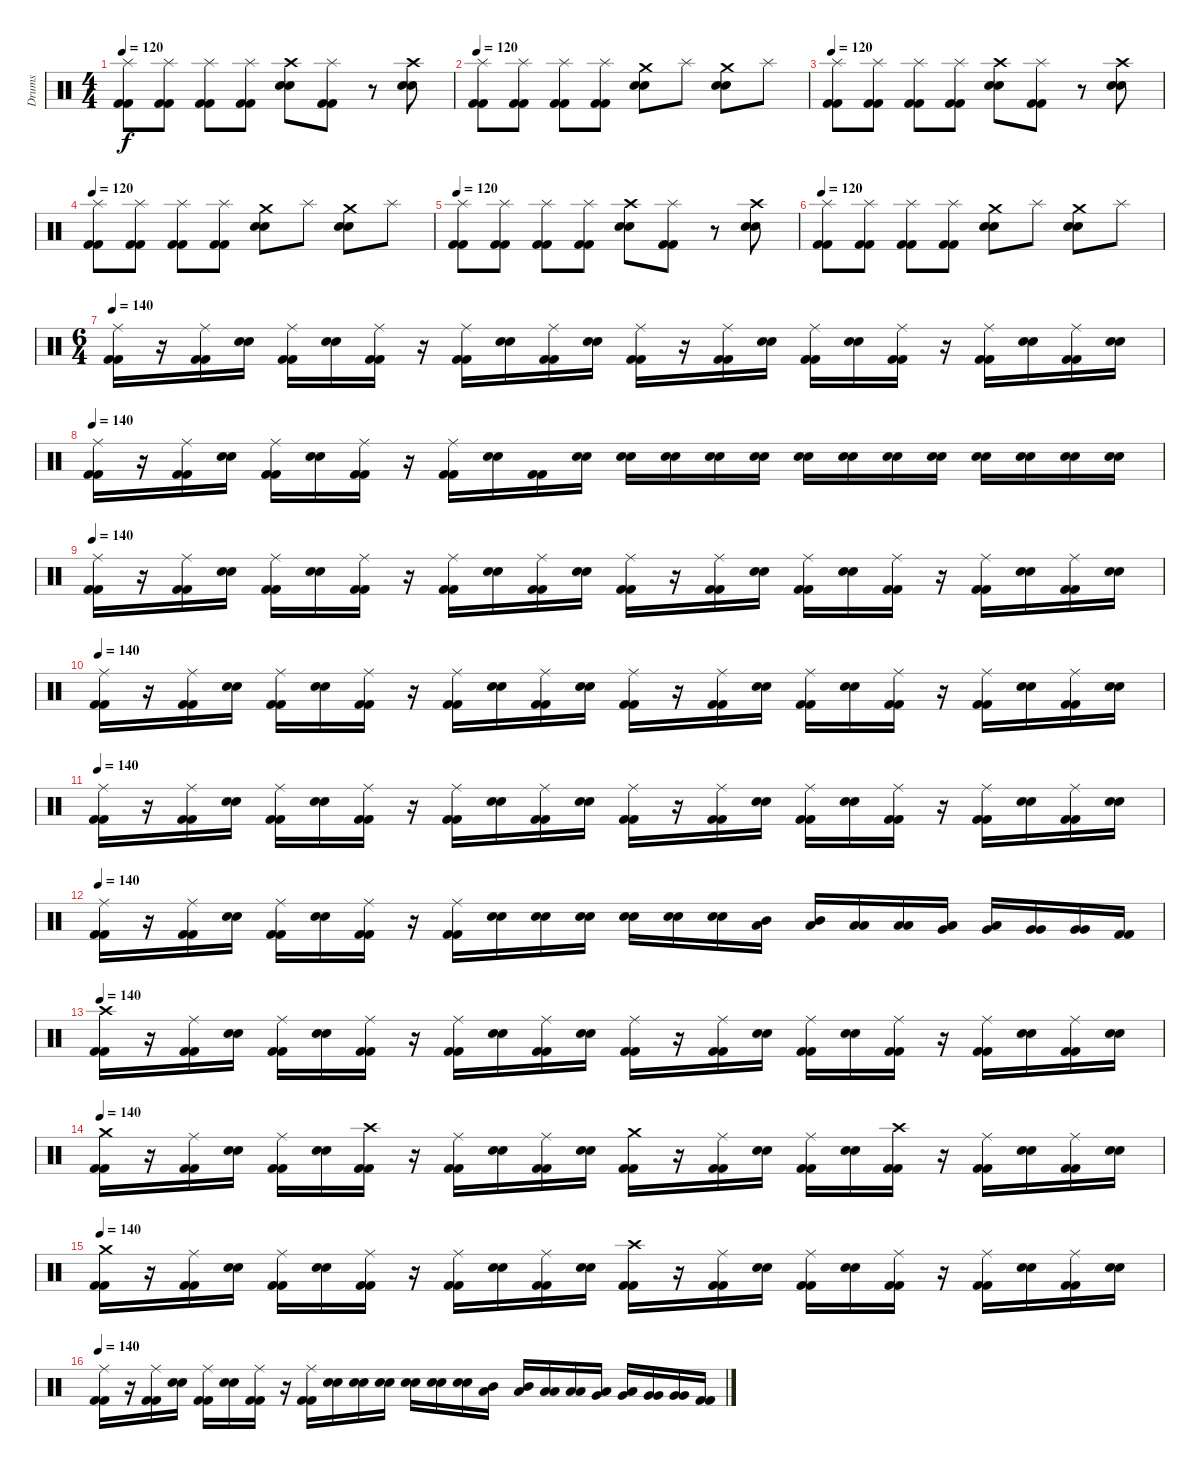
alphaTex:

\track ("Drums" "Drums") {instrument percussion}
\staff {score}
\articulation defaults
\ts (4 4)
\tempo 120
\clef neutral
\ks c
("Splash (hit)" "Kick (hit) 2" "Kick (hit) 2").8{dy f} ("Splash (hit)" "Kick (hit) 2" "Kick (hit) 2").8 ("Splash (hit)" "Kick (hit) 2" "Kick (hit) 2").8 ("Splash (hit)" "Kick (hit) 2" "Kick (hit) 2").8 ("Crash high (hit)" "Snare (hit) 2" "Snare (hit) 2").8 ("Splash (hit)" "Kick (hit) 2" "Kick (hit) 2").8 r.8 ("Crash high (hit)" "Snare (hit) 2" "Snare (hit) 2").8 |
\tempo 120
("Splash (hit)" "Kick (hit) 2" "Kick (hit) 2").8 ("Splash (hit)" "Kick (hit) 2" "Kick (hit) 2").8 ("Splash (hit)" "Kick (hit) 2" "Kick (hit) 2").8 ("Splash (hit)" "Kick (hit) 2" "Kick (hit) 2").8 ("Crash medium (hit)" "Snare (hit) 2" "Snare (hit) 2").8 "Splash (hit)".8 ("Crash medium (hit)" "Snare (hit) 2" "Snare (hit) 2").8 "Splash (hit)".8 |
\tempo 120
("Splash (hit)" "Kick (hit) 2" "Kick (hit) 2").8 ("Splash (hit)" "Kick (hit) 2" "Kick (hit) 2").8 ("Splash (hit)" "Kick (hit) 2" "Kick (hit) 2").8 ("Splash (hit)" "Kick (hit) 2" "Kick (hit) 2").8 ("Crash high (hit)" "Snare (hit) 2" "Snare (hit) 2").8 ("Splash (hit)" "Kick (hit) 2" "Kick (hit) 2").8 r.8 ("Crash high (hit)" "Snare (hit) 2" "Snare (hit) 2").8 |
\tempo 120
("Splash (hit)" "Kick (hit) 2" "Kick (hit) 2").8 ("Splash (hit)" "Kick (hit) 2" "Kick (hit) 2").8 ("Splash (hit)" "Kick (hit) 2" "Kick (hit) 2").8 ("Splash (hit)" "Kick (hit) 2" "Kick (hit) 2").8 ("Crash medium (hit)" "Snare (hit) 2" "Snare (hit) 2").8 "Splash (hit)".8 ("Crash medium (hit)" "Snare (hit) 2" "Snare (hit) 2").8 "Splash (hit)".8 |
\tempo 120
("Splash (hit)" "Kick (hit) 2" "Kick (hit) 2").8 ("Splash (hit)" "Kick (hit) 2" "Kick (hit) 2").8 ("Splash (hit)" "Kick (hit) 2" "Kick (hit) 2").8 ("Splash (hit)" "Kick (hit) 2" "Kick (hit) 2").8 ("Crash high (hit)" "Snare (hit) 2" "Snare (hit) 2").8 ("Splash (hit)" "Kick (hit) 2" "Kick (hit) 2").8 r.8 ("Crash high (hit)" "Snare (hit) 2" "Snare (hit) 2").8 |
\tempo 120
("Splash (hit)" "Kick (hit) 2" "Kick (hit) 2").8 ("Splash (hit)" "Kick (hit) 2" "Kick (hit) 2").8 ("Splash (hit)" "Kick (hit) 2" "Kick (hit) 2").8 ("Splash (hit)" "Kick (hit) 2" "Kick (hit) 2").8 ("Crash medium (hit)" "Snare (hit) 2" "Snare (hit) 2").8 "Splash (hit)".8 ("Crash medium (hit)" "Snare (hit) 2" "Snare (hit) 2").8 "Splash (hit)".8 |
\ts (6 4)
\tempo 140
("Ride (middle)" "Kick (hit) 2" "Kick (hit) 2").16 r.16 ("Ride (middle)" "Kick (hit) 2" "Kick (hit) 2").16 ("Snare (hit) 2" "Snare (hit) 2").16 ("Ride (middle)" "Kick (hit) 2" "Kick (hit) 2").16 ("Snare (hit) 2" "Snare (hit) 2").16 ("Ride (middle)" "Kick (hit) 2" "Kick (hit) 2").16 r.16 ("Ride (middle)" "Kick (hit) 2" "Kick (hit) 2").16 ("Snare (hit) 2" "Snare (hit) 2").16 ("Ride (middle)" "Kick (hit) 2" "Kick (hit) 2").16 ("Snare (hit) 2" "Snare (hit) 2").16 ("Ride (middle)" "Kick (hit) 2" "Kick (hit) 2").16 r.16 ("Ride (middle)" "Kick (hit) 2" "Kick (hit) 2").16 ("Snare (hit) 2" "Snare (hit) 2").16 ("Ride (middle)" "Kick (hit) 2" "Kick (hit) 2").16 ("Snare (hit) 2" "Snare (hit) 2").16 ("Ride (middle)" "Kick (hit) 2" "Kick (hit) 2").16 r.16 ("Ride (middle)" "Kick (hit) 2" "Kick (hit) 2").16 ("Snare (hit) 2" "Snare (hit) 2").16 ("Ride (middle)" "Kick (hit) 2" "Kick (hit) 2").16 ("Snare (hit) 2" "Snare (hit) 2").16 |
\tempo 140
("Ride (middle)" "Kick (hit) 2" "Kick (hit) 2").16 r.16 ("Ride (middle)" "Kick (hit) 2" "Kick (hit) 2").16 ("Snare (hit) 2" "Snare (hit) 2").16 ("Ride (middle)" "Kick (hit) 2" "Kick (hit) 2").16 ("Snare (hit) 2" "Snare (hit) 2").16 ("Ride (middle)" "Kick (hit) 2" "Kick (hit) 2").16 r.16 ("Ride (middle)" "Kick (hit) 2" "Kick (hit) 2").16 ("Snare (hit) 2" "Snare (hit) 2").16 ("Kick (hit) 2" "Kick (hit) 2").16 ("Snare (hit) 2" "Snare (hit) 2").16 ("Snare (hit) 2" "Snare (hit) 2").16 ("Snare (hit) 2" "Snare (hit) 2").16 ("Snare (hit) 2" "Snare (hit) 2").16 ("Snare (hit) 2" "Snare (hit) 2").16 ("Snare (hit) 2" "Snare (hit) 2").16 ("Snare (hit) 2" "Snare (hit) 2").16 ("Snare (hit) 2" "Snare (hit) 2").16 ("Snare (hit) 2" "Snare (hit) 2").16 ("Snare (hit) 2" "Snare (hit) 2").16 ("Snare (hit) 2" "Snare (hit) 2").16 ("Snare (hit) 2" "Snare (hit) 2").16 ("Snare (hit) 2" "Snare (hit) 2").16 |
\tempo 140
("Ride (middle)" "Kick (hit) 2" "Kick (hit) 2").16 r.16 ("Ride (middle)" "Kick (hit) 2" "Kick (hit) 2").16 ("Snare (hit) 2" "Snare (hit) 2").16 ("Ride (middle)" "Kick (hit) 2" "Kick (hit) 2").16 ("Snare (hit) 2" "Snare (hit) 2").16 ("Ride (middle)" "Kick (hit) 2" "Kick (hit) 2").16 r.16 ("Ride (middle)" "Kick (hit) 2" "Kick (hit) 2").16 ("Snare (hit) 2" "Snare (hit) 2").16 ("Ride (middle)" "Kick (hit) 2" "Kick (hit) 2").16 ("Snare (hit) 2" "Snare (hit) 2").16 ("Ride (middle)" "Kick (hit) 2" "Kick (hit) 2").16 r.16 ("Ride (middle)" "Kick (hit) 2" "Kick (hit) 2").16 ("Snare (hit) 2" "Snare (hit) 2").16 ("Ride (middle)" "Kick (hit) 2" "Kick (hit) 2").16 ("Snare (hit) 2" "Snare (hit) 2").16 ("Ride (middle)" "Kick (hit) 2" "Kick (hit) 2").16 r.16 ("Ride (middle)" "Kick (hit) 2" "Kick (hit) 2").16 ("Snare (hit) 2" "Snare (hit) 2").16 ("Ride (middle)" "Kick (hit) 2" "Kick (hit) 2").16 ("Snare (hit) 2" "Snare (hit) 2").16 |
\tempo 140
("Ride (middle)" "Kick (hit) 2" "Kick (hit) 2").16 r.16 ("Ride (middle)" "Kick (hit) 2" "Kick (hit) 2").16 ("Snare (hit) 2" "Snare (hit) 2").16 ("Ride (middle)" "Kick (hit) 2" "Kick (hit) 2").16 ("Snare (hit) 2" "Snare (hit) 2").16 ("Ride (middle)" "Kick (hit) 2" "Kick (hit) 2").16 r.16 ("Ride (middle)" "Kick (hit) 2" "Kick (hit) 2").16 ("Snare (hit) 2" "Snare (hit) 2").16 ("Ride (middle)" "Kick (hit) 2" "Kick (hit) 2").16 ("Snare (hit) 2" "Snare (hit) 2").16 ("Ride (middle)" "Kick (hit) 2" "Kick (hit) 2").16 r.16 ("Ride (middle)" "Kick (hit) 2" "Kick (hit) 2").16 ("Snare (hit) 2" "Snare (hit) 2").16 ("Ride (middle)" "Kick (hit) 2" "Kick (hit) 2").16 ("Snare (hit) 2" "Snare (hit) 2").16 ("Ride (middle)" "Kick (hit) 2" "Kick (hit) 2").16 r.16 ("Ride (middle)" "Kick (hit) 2" "Kick (hit) 2").16 ("Snare (hit) 2" "Snare (hit) 2").16 ("Ride (middle)" "Kick (hit) 2" "Kick (hit) 2").16 ("Snare (hit) 2" "Snare (hit) 2").16 |
\tempo 140
("Ride (middle)" "Kick (hit) 2" "Kick (hit) 2").16 r.16 ("Ride (middle)" "Kick (hit) 2" "Kick (hit) 2").16 ("Snare (hit) 2" "Snare (hit) 2").16 ("Ride (middle)" "Kick (hit) 2" "Kick (hit) 2").16 ("Snare (hit) 2" "Snare (hit) 2").16 ("Ride (middle)" "Kick (hit) 2" "Kick (hit) 2").16 r.16 ("Ride (middle)" "Kick (hit) 2" "Kick (hit) 2").16 ("Snare (hit) 2" "Snare (hit) 2").16 ("Ride (middle)" "Kick (hit) 2" "Kick (hit) 2").16 ("Snare (hit) 2" "Snare (hit) 2").16 ("Ride (middle)" "Kick (hit) 2" "Kick (hit) 2").16 r.16 ("Ride (middle)" "Kick (hit) 2" "Kick (hit) 2").16 ("Snare (hit) 2" "Snare (hit) 2").16 ("Ride (middle)" "Kick (hit) 2" "Kick (hit) 2").16 ("Snare (hit) 2" "Snare (hit) 2").16 ("Ride (middle)" "Kick (hit) 2" "Kick (hit) 2").16 r.16 ("Ride (middle)" "Kick (hit) 2" "Kick (hit) 2").16 ("Snare (hit) 2" "Snare (hit) 2").16 ("Ride (middle)" "Kick (hit) 2" "Kick (hit) 2").16 ("Snare (hit) 2" "Snare (hit) 2").16 |
\tempo 140
("Ride (middle)" "Kick (hit) 2" "Kick (hit) 2").16 r.16 ("Ride (middle)" "Kick (hit) 2" "Kick (hit) 2").16 ("Snare (hit) 2" "Snare (hit) 2").16 ("Ride (middle)" "Kick (hit) 2" "Kick (hit) 2").16 ("Snare (hit) 2" "Snare (hit) 2").16 ("Ride (middle)" "Kick (hit) 2" "Kick (hit) 2").16 r.16 ("Ride (middle)" "Kick (hit) 2" "Kick (hit) 2").16 ("Snare (hit) 2" "Snare (hit) 2").16 ("Snare (hit) 2" "Snare (hit) 2").16 ("Snare (hit) 2" "Snare (hit) 2").16 ("Snare (hit) 2" "Snare (hit) 2").16 ("Snare (hit) 2" "Snare (hit) 2").16 ("Snare (hit) 2" "Snare (hit) 2").16 ("Mid Tom (hit)" "Low Tom (hit)").16 ("Mid Tom (hit)" "Low Tom (hit)").16 ("Low Tom (hit)" "Low Tom (hit)").16 ("Low Tom (hit)" "Low Tom (hit)").16 ("Very Low Tom (hit)" "Low Tom (hit)").16 ("Very Low Tom (hit)" "Low Tom (hit)").16 ("Very Low Tom (hit)" "Very Low Tom (hit)").16 ("Very Low Tom (hit)" "Very Low Tom (hit)").16 ("Kick (hit) 2" "Kick (hit) 2").16 |
\tempo 140
("Crash high (hit)" "Kick (hit) 2" "Kick (hit) 2").16 r.16 ("Ride (middle)" "Kick (hit) 2" "Kick (hit) 2").16 ("Snare (hit) 2" "Snare (hit) 2").16 ("Ride (middle)" "Kick (hit) 2" "Kick (hit) 2").16 ("Snare (hit) 2" "Snare (hit) 2").16 ("Ride (middle)" "Kick (hit) 2" "Kick (hit) 2").16 r.16 ("Ride (middle)" "Kick (hit) 2" "Kick (hit) 2").16 ("Snare (hit) 2" "Snare (hit) 2").16 ("Ride (middle)" "Kick (hit) 2" "Kick (hit) 2").16 ("Snare (hit) 2" "Snare (hit) 2").16 ("Ride (middle)" "Kick (hit) 2" "Kick (hit) 2").16 r.16 ("Ride (middle)" "Kick (hit) 2" "Kick (hit) 2").16 ("Snare (hit) 2" "Snare (hit) 2").16 ("Ride (middle)" "Kick (hit) 2" "Kick (hit) 2").16 ("Snare (hit) 2" "Snare (hit) 2").16 ("Ride (middle)" "Kick (hit) 2" "Kick (hit) 2").16 r.16 ("Ride (middle)" "Kick (hit) 2" "Kick (hit) 2").16 ("Snare (hit) 2" "Snare (hit) 2").16 ("Ride (middle)" "Kick (hit) 2" "Kick (hit) 2").16 ("Snare (hit) 2" "Snare (hit) 2").16 |
\tempo 140
("Crash medium (hit)" "Kick (hit) 2" "Kick (hit) 2").16 r.16 ("Ride (middle)" "Kick (hit) 2" "Kick (hit) 2").16 ("Snare (hit) 2" "Snare (hit) 2").16 ("Ride (middle)" "Kick (hit) 2" "Kick (hit) 2").16 ("Snare (hit) 2" "Snare (hit) 2").16 ("Crash high (hit)" "Kick (hit) 2" "Kick (hit) 2").16 r.16 ("Ride (middle)" "Kick (hit) 2" "Kick (hit) 2").16 ("Snare (hit) 2" "Snare (hit) 2").16 ("Ride (middle)" "Kick (hit) 2" "Kick (hit) 2").16 ("Snare (hit) 2" "Snare (hit) 2").16 ("Crash medium (hit)" "Kick (hit) 2" "Kick (hit) 2").16 r.16 ("Ride (middle)" "Kick (hit) 2" "Kick (hit) 2").16 ("Snare (hit) 2" "Snare (hit) 2").16 ("Ride (middle)" "Kick (hit) 2" "Kick (hit) 2").16 ("Snare (hit) 2" "Snare (hit) 2").16 ("Crash high (hit)" "Kick (hit) 2" "Kick (hit) 2").16 r.16 ("Ride (middle)" "Kick (hit) 2" "Kick (hit) 2").16 ("Snare (hit) 2" "Snare (hit) 2").16 ("Ride (middle)" "Kick (hit) 2" "Kick (hit) 2").16 ("Snare (hit) 2" "Snare (hit) 2").16 |
\tempo 140
("Crash medium (hit)" "Kick (hit) 2" "Kick (hit) 2").16 r.16 ("Ride (middle)" "Kick (hit) 2" "Kick (hit) 2").16 ("Snare (hit) 2" "Snare (hit) 2").16 ("Ride (middle)" "Kick (hit) 2" "Kick (hit) 2").16 ("Snare (hit) 2" "Snare (hit) 2").16 ("Ride (middle)" "Kick (hit) 2" "Kick (hit) 2").16 r.16 ("Ride (middle)" "Kick (hit) 2" "Kick (hit) 2").16 ("Snare (hit) 2" "Snare (hit) 2").16 ("Ride (middle)" "Kick (hit) 2" "Kick (hit) 2").16 ("Snare (hit) 2" "Snare (hit) 2").16 ("Crash high (hit)" "Kick (hit) 2" "Kick (hit) 2").16 r.16 ("Ride (middle)" "Kick (hit) 2" "Kick (hit) 2").16 ("Snare (hit) 2" "Snare (hit) 2").16 ("Ride (middle)" "Kick (hit) 2" "Kick (hit) 2").16 ("Snare (hit) 2" "Snare (hit) 2").16 ("Ride (middle)" "Kick (hit) 2" "Kick (hit) 2").16 r.16 ("Ride (middle)" "Kick (hit) 2" "Kick (hit) 2").16 ("Snare (hit) 2" "Snare (hit) 2").16 ("Ride (middle)" "Kick (hit) 2" "Kick (hit) 2").16 ("Snare (hit) 2" "Snare (hit) 2").16 |
\tempo 140
("Ride (middle)" "Kick (hit) 2" "Kick (hit) 2").16 r.16 ("Ride (middle)" "Kick (hit) 2" "Kick (hit) 2").16 ("Snare (hit) 2" "Snare (hit) 2").16 ("Ride (middle)" "Kick (hit) 2" "Kick (hit) 2").16 ("Snare (hit) 2" "Snare (hit) 2").16 ("Ride (middle)" "Kick (hit) 2" "Kick (hit) 2").16 r.16 ("Ride (middle)" "Kick (hit) 2" "Kick (hit) 2").16 ("Snare (hit) 2" "Snare (hit) 2").16 ("Snare (hit) 2" "Snare (hit) 2").16 ("Snare (hit) 2" "Snare (hit) 2").16 ("Snare (hit) 2" "Snare (hit) 2").16 ("Snare (hit) 2" "Snare (hit) 2").16 ("Snare (hit) 2" "Snare (hit) 2").16 ("Mid Tom (hit)" "Low Tom (hit)").16 ("Mid Tom (hit)" "Low Tom (hit)").16 ("Low Tom (hit)" "Low Tom (hit)").16 ("Low Tom (hit)" "Low Tom (hit)").16 ("Very Low Tom (hit)" "Low Tom (hit)").16 ("Very Low Tom (hit)" "Low Tom (hit)").16 ("Very Low Tom (hit)" "Very Low Tom (hit)").16 ("Very Low Tom (hit)" "Very Low Tom (hit)").16 ("Kick (hit) 2" "Kick (hit) 2").16
